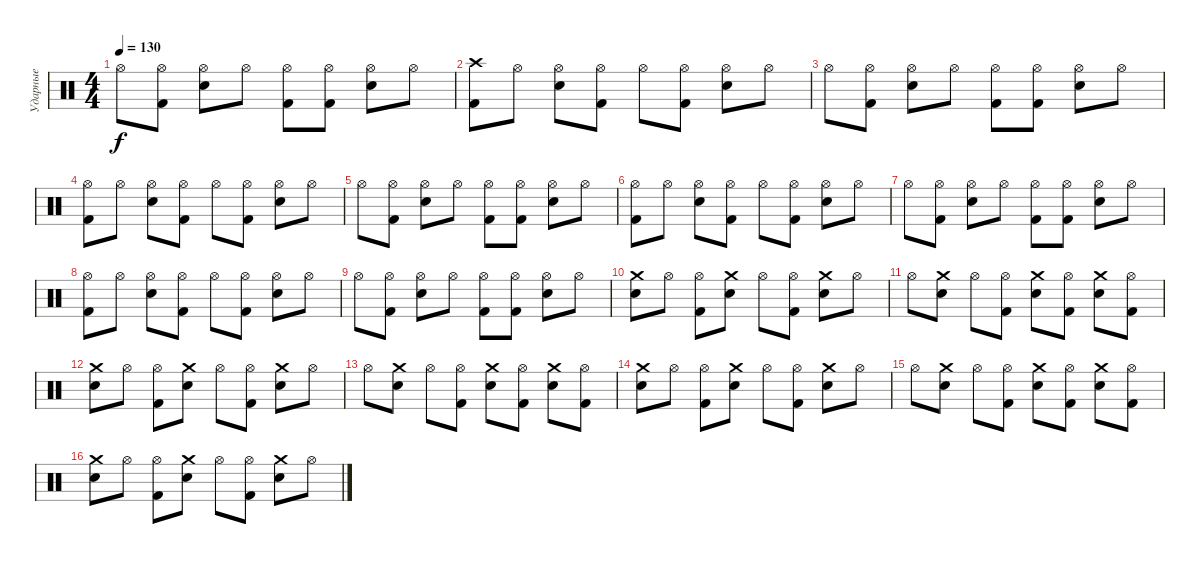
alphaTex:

\track ("Ударные" "Ударные") {instrument percussion}
\staff {score}
\articulation defaults
\ts (4 4)
\tempo 130
\clef neutral
\ks c "Hi-Hat (open)".8{dy f}
("Hi-Hat (open)" "Kick (hit) 2").8 ("Hi-Hat (open)" "Snare (hit) 2").8 "Hi-Hat (open)".8 ("Hi-Hat (open)" "Kick (hit) 2").8 ("Hi-Hat (open)" "Kick (hit) 2").8 ("Hi-Hat (open)" "Snare (hit) 2").8 "Hi-Hat (open)".8 |
("Crash high (hit)" "Kick (hit) 2").8 "Hi-Hat (open)".8 ("Hi-Hat (open)" "Snare (hit) 2").8 ("Hi-Hat (open)" "Kick (hit) 2").8 "Hi-Hat (open)".8 ("Hi-Hat (open)" "Kick (hit) 2").8 ("Hi-Hat (open)" "Snare (hit) 2").8 "Hi-Hat (open)".8 |
"Hi-Hat (open)".8 ("Hi-Hat (open)" "Kick (hit) 2").8 ("Hi-Hat (open)" "Snare (hit) 2").8 "Hi-Hat (open)".8 ("Hi-Hat (open)" "Kick (hit) 2").8 ("Hi-Hat (open)" "Kick (hit) 2").8 ("Hi-Hat (open)" "Snare (hit) 2").8 "Hi-Hat (open)".8 |
("Hi-Hat (open)" "Kick (hit) 2").8 "Hi-Hat (open)".8 ("Hi-Hat (open)" "Snare (hit) 2").8 ("Hi-Hat (open)" "Kick (hit) 2").8 "Hi-Hat (open)".8 ("Hi-Hat (open)" "Kick (hit) 2").8 ("Hi-Hat (open)" "Snare (hit) 2").8 "Hi-Hat (open)".8 |
"Hi-Hat (open)".8 ("Hi-Hat (open)" "Kick (hit) 2").8 ("Hi-Hat (open)" "Snare (hit) 2").8 "Hi-Hat (open)".8 ("Hi-Hat (open)" "Kick (hit) 2").8 ("Hi-Hat (open)" "Kick (hit) 2").8 ("Hi-Hat (open)" "Snare (hit) 2").8 "Hi-Hat (open)".8 |
("Hi-Hat (open)" "Kick (hit) 2").8 "Hi-Hat (open)".8 ("Hi-Hat (open)" "Snare (hit) 2").8 ("Hi-Hat (open)" "Kick (hit) 2").8 "Hi-Hat (open)".8 ("Hi-Hat (open)" "Kick (hit) 2").8 ("Hi-Hat (open)" "Snare (hit) 2").8 "Hi-Hat (open)".8 |
"Hi-Hat (open)".8 ("Hi-Hat (open)" "Kick (hit) 2").8 ("Hi-Hat (open)" "Snare (hit) 2").8 "Hi-Hat (open)".8 ("Hi-Hat (open)" "Kick (hit) 2").8 ("Hi-Hat (open)" "Kick (hit) 2").8 ("Hi-Hat (open)" "Snare (hit) 2").8 "Hi-Hat (open)".8 |
("Hi-Hat (open)" "Kick (hit) 2").8 "Hi-Hat (open)".8 ("Hi-Hat (open)" "Snare (hit) 2").8 ("Hi-Hat (open)" "Kick (hit) 2").8 "Hi-Hat (open)".8 ("Hi-Hat (open)" "Kick (hit) 2").8 ("Hi-Hat (open)" "Snare (hit) 2").8 "Hi-Hat (open)".8 |
"Hi-Hat (open)".8 ("Hi-Hat (open)" "Kick (hit) 2").8 ("Hi-Hat (open)" "Snare (hit) 2").8 "Hi-Hat (open)".8 ("Hi-Hat (open)" "Kick (hit) 2").8 ("Hi-Hat (open)" "Kick (hit) 2").8 ("Hi-Hat (open)" "Snare (hit) 2").8 "Hi-Hat (open)".8 |
("Crash medium (hit)" "Snare (hit) 2").8 "Hi-Hat (open)".8 ("Hi-Hat (open)" "Kick (hit) 2").8 ("Crash medium (hit)" "Snare (hit) 2").8 "Hi-Hat (open)".8 ("Hi-Hat (open)" "Kick (hit) 2").8 ("Crash medium (hit)" "Snare (hit) 2").8 "Hi-Hat (open)".8 |
"Hi-Hat (open)".8 ("Crash medium (hit)" "Snare (hit) 2").8 "Hi-Hat (open)".8 ("Hi-Hat (open)" "Kick (hit) 2").8 ("Crash medium (hit)" "Snare (hit) 2").8 ("Hi-Hat (open)" "Kick (hit) 2").8 ("Crash medium (hit)" "Snare (hit) 2").8 ("Hi-Hat (open)" "Kick (hit) 2").8 |
("Crash medium (hit)" "Snare (hit) 2").8 "Hi-Hat (open)".8 ("Hi-Hat (open)" "Kick (hit) 2").8 ("Crash medium (hit)" "Snare (hit) 2").8 "Hi-Hat (open)".8 ("Hi-Hat (open)" "Kick (hit) 2").8 ("Crash medium (hit)" "Snare (hit) 2").8 "Hi-Hat (open)".8 |
"Hi-Hat (open)".8 ("Crash medium (hit)" "Snare (hit) 2").8 "Hi-Hat (open)".8 ("Hi-Hat (open)" "Kick (hit) 2").8 ("Crash medium (hit)" "Snare (hit) 2").8 ("Hi-Hat (open)" "Kick (hit) 2").8 ("Crash medium (hit)" "Snare (hit) 2").8 ("Hi-Hat (open)" "Kick (hit) 2").8 |
("Crash medium (hit)" "Snare (hit) 2").8 "Hi-Hat (open)".8 ("Hi-Hat (open)" "Kick (hit) 2").8 ("Crash medium (hit)" "Snare (hit) 2").8 "Hi-Hat (open)".8 ("Hi-Hat (open)" "Kick (hit) 2").8 ("Crash medium (hit)" "Snare (hit) 2").8 "Hi-Hat (open)".8 |
"Hi-Hat (open)".8 ("Crash medium (hit)" "Snare (hit) 2").8 "Hi-Hat (open)".8 ("Hi-Hat (open)" "Kick (hit) 2").8 ("Crash medium (hit)" "Snare (hit) 2").8 ("Hi-Hat (open)" "Kick (hit) 2").8 ("Crash medium (hit)" "Snare (hit) 2").8 ("Hi-Hat (open)" "Kick (hit) 2").8 |
("Crash medium (hit)" "Snare (hit) 2").8 "Hi-Hat (open)".8 ("Hi-Hat (open)" "Kick (hit) 2").8 ("Crash medium (hit)" "Snare (hit) 2").8 "Hi-Hat (open)".8 ("Hi-Hat (open)" "Kick (hit) 2").8 ("Crash medium (hit)" "Snare (hit) 2").8 "Hi-Hat (open)".8
